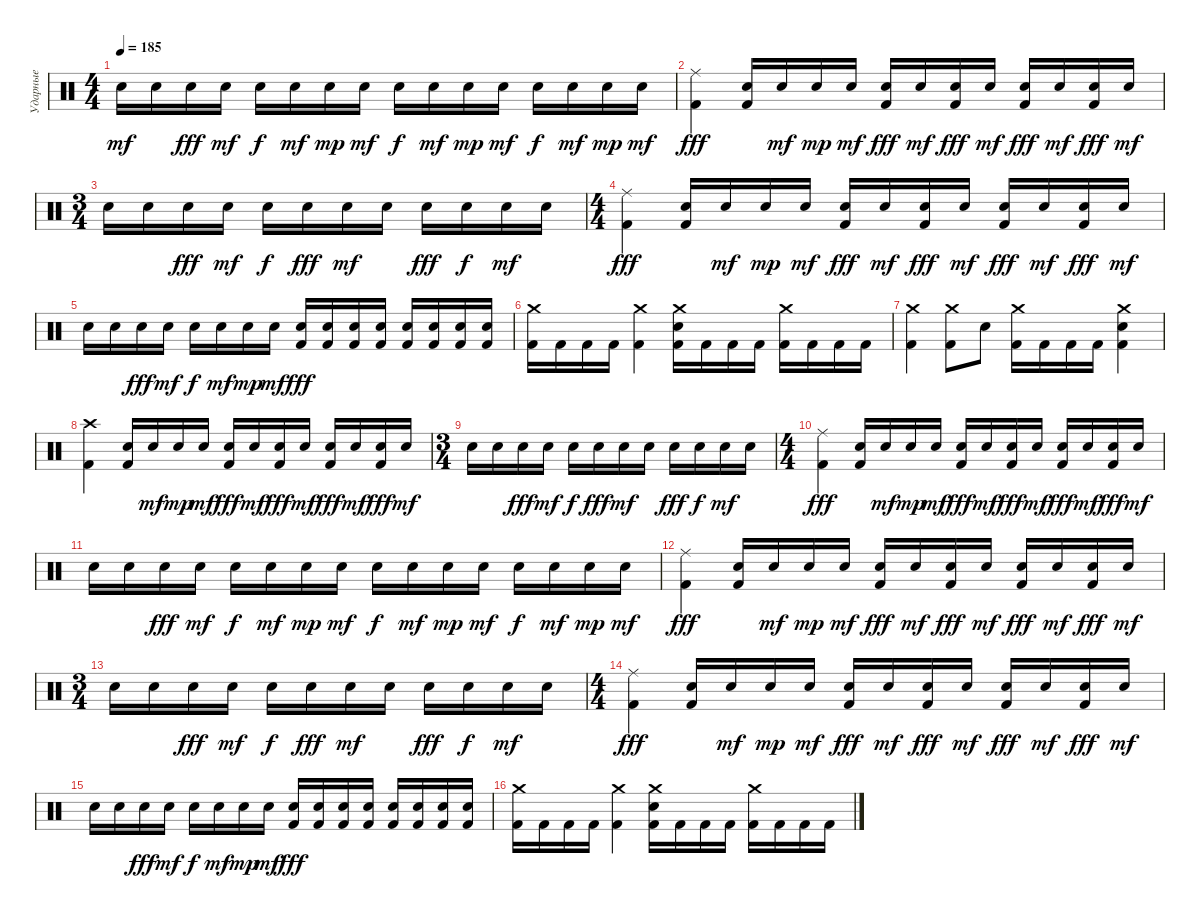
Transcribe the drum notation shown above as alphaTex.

\track ("Ударные" "Ударные") {instrument percussion}
\staff {score}
\articulation defaults
\ts (4 4)
\tempo 185
\clef neutral
\ks c "Electric Snare (hit)".16{dy mf} "Electric Snare (hit)".16 "Electric Snare (hit)".16{dy fff} "Electric Snare (hit)".16{dy mf} "Electric Snare (hit)".16{dy f} "Electric Snare (hit)".16{dy mf} "Electric Snare (hit)".16{dy mp} "Electric Snare (hit)".16{dy mf} "Electric Snare (hit)".16{dy f} "Electric Snare (hit)".16{dy mf} "Electric Snare (hit)".16{dy mp} "Electric Snare (hit)".16{dy mf} "Electric Snare (hit)".16{dy f} "Electric Snare (hit)".16{dy mf} "Electric Snare (hit)".16{dy mp} "Electric Snare (hit)".16{dy mf}
|
("Ride (middle)" "Kick (hit) 2").4{dy fff} ("Electric Snare (hit)" "Kick (hit) 2").16 "Electric Snare (hit)".16{dy mf} "Electric Snare (hit)".16{dy mp} "Electric Snare (hit)".16{dy mf} ("Electric Snare (hit)" "Kick (hit) 2").16{dy fff} "Electric Snare (hit)".16{dy mf} ("Electric Snare (hit)" "Kick (hit) 2").16{dy fff} "Electric Snare (hit)".16{dy mf} ("Electric Snare (hit)" "Kick (hit) 2").16{dy fff} "Electric Snare (hit)".16{dy mf} ("Electric Snare (hit)" "Kick (hit) 2").16{dy fff} "Electric Snare (hit)".16{dy mf} |
\ts (3 4)
"Electric Snare (hit)".16 "Electric Snare (hit)".16 "Electric Snare (hit)".16{dy fff} "Electric Snare (hit)".16{dy mf} "Electric Snare (hit)".16{dy f} "Electric Snare (hit)".16{dy fff} "Electric Snare (hit)".16{dy mf} "Electric Snare (hit)".16 "Electric Snare (hit)".16{dy fff} "Electric Snare (hit)".16{dy f} "Electric Snare (hit)".16{dy mf} "Electric Snare (hit)".16 |
\ts (4 4)
("Ride (middle)" "Kick (hit) 2").4{dy fff} ("Electric Snare (hit)" "Kick (hit) 2").16 "Electric Snare (hit)".16{dy mf} "Electric Snare (hit)".16{dy mp} "Electric Snare (hit)".16{dy mf} ("Electric Snare (hit)" "Kick (hit) 2").16{dy fff} "Electric Snare (hit)".16{dy mf} ("Electric Snare (hit)" "Kick (hit) 2").16{dy fff} "Electric Snare (hit)".16{dy mf} ("Electric Snare (hit)" "Kick (hit) 2").16{dy fff} "Electric Snare (hit)".16{dy mf} ("Electric Snare (hit)" "Kick (hit) 2").16{dy fff} "Electric Snare (hit)".16{dy mf} |
"Electric Snare (hit)".16 "Electric Snare (hit)".16 "Electric Snare (hit)".16{dy fff} "Electric Snare (hit)".16{dy mf} "Electric Snare (hit)".16{dy f} "Electric Snare (hit)".16{dy mf} "Electric Snare (hit)".16{dy mp} "Electric Snare (hit)".16{dy mf} ("Electric Snare (hit)" "Kick (hit) 2").16{dy fff} ("Electric Snare (hit)" "Kick (hit) 2").16 ("Electric Snare (hit)" "Kick (hit) 2").16 ("Electric Snare (hit)" "Kick (hit) 2").16 ("Electric Snare (hit)" "Kick (hit) 2").16 ("Electric Snare (hit)" "Kick (hit) 2").16 ("Electric Snare (hit)" "Kick (hit) 2").16 ("Electric Snare (hit)" "Kick (hit) 2").16 |
("Crash medium (hit)" "Kick (hit) 2").16 "Kick (hit) 2".16 "Kick (hit) 2".16 "Kick (hit) 2".16 ("Crash medium (hit)" "Kick (hit) 2").4 ("Crash medium (hit)" "Electric Snare (hit)" "Kick (hit) 2").16 "Kick (hit) 2".16 "Kick (hit) 2".16 "Kick (hit) 2".16 ("Crash medium (hit)" "Kick (hit) 2").16 "Kick (hit) 2".16 "Kick (hit) 2".16 "Kick (hit) 2".16 |
("Crash medium (hit)" "Kick (hit) 2").4 ("Crash medium (hit)" "Kick (hit) 2").8 "Electric Snare (hit)".8 ("Crash medium (hit)" "Kick (hit) 2").16 "Kick (hit) 2".16 "Kick (hit) 2".16 "Kick (hit) 2".16 ("Crash medium (hit)" "Electric Snare (hit)" "Kick (hit) 2").4 |
("Crash high (hit)" "Kick (hit) 2").4 ("Electric Snare (hit)" "Kick (hit) 2").16 "Electric Snare (hit)".16{dy mf} "Electric Snare (hit)".16{dy mp} "Electric Snare (hit)".16{dy mf} ("Electric Snare (hit)" "Kick (hit) 2").16{dy fff} "Electric Snare (hit)".16{dy mf} ("Electric Snare (hit)" "Kick (hit) 2").16{dy fff} "Electric Snare (hit)".16{dy mf} ("Electric Snare (hit)" "Kick (hit) 2").16{dy fff} "Electric Snare (hit)".16{dy mf} ("Electric Snare (hit)" "Kick (hit) 2").16{dy fff} "Electric Snare (hit)".16{dy mf} |
\ts (3 4)
"Electric Snare (hit)".16 "Electric Snare (hit)".16 "Electric Snare (hit)".16{dy fff} "Electric Snare (hit)".16{dy mf} "Electric Snare (hit)".16{dy f} "Electric Snare (hit)".16{dy fff} "Electric Snare (hit)".16{dy mf} "Electric Snare (hit)".16 "Electric Snare (hit)".16{dy fff} "Electric Snare (hit)".16{dy f} "Electric Snare (hit)".16{dy mf} "Electric Snare (hit)".16 |
\ts (4 4)
("Ride (middle)" "Kick (hit) 2").4{dy fff} ("Electric Snare (hit)" "Kick (hit) 2").16 "Electric Snare (hit)".16{dy mf} "Electric Snare (hit)".16{dy mp} "Electric Snare (hit)".16{dy mf} ("Electric Snare (hit)" "Kick (hit) 2").16{dy fff} "Electric Snare (hit)".16{dy mf} ("Electric Snare (hit)" "Kick (hit) 2").16{dy fff} "Electric Snare (hit)".16{dy mf} ("Electric Snare (hit)" "Kick (hit) 2").16{dy fff} "Electric Snare (hit)".16{dy mf} ("Electric Snare (hit)" "Kick (hit) 2").16{dy fff} "Electric Snare (hit)".16{dy mf} |
"Electric Snare (hit)".16 "Electric Snare (hit)".16 "Electric Snare (hit)".16{dy fff} "Electric Snare (hit)".16{dy mf} "Electric Snare (hit)".16{dy f} "Electric Snare (hit)".16{dy mf} "Electric Snare (hit)".16{dy mp} "Electric Snare (hit)".16{dy mf} "Electric Snare (hit)".16{dy f} "Electric Snare (hit)".16{dy mf} "Electric Snare (hit)".16{dy mp} "Electric Snare (hit)".16{dy mf} "Electric Snare (hit)".16{dy f} "Electric Snare (hit)".16{dy mf} "Electric Snare (hit)".16{dy mp} "Electric Snare (hit)".16{dy mf} |
("Ride (middle)" "Kick (hit) 2").4{dy fff} ("Electric Snare (hit)" "Kick (hit) 2").16 "Electric Snare (hit)".16{dy mf} "Electric Snare (hit)".16{dy mp} "Electric Snare (hit)".16{dy mf} ("Electric Snare (hit)" "Kick (hit) 2").16{dy fff} "Electric Snare (hit)".16{dy mf} ("Electric Snare (hit)" "Kick (hit) 2").16{dy fff} "Electric Snare (hit)".16{dy mf} ("Electric Snare (hit)" "Kick (hit) 2").16{dy fff} "Electric Snare (hit)".16{dy mf} ("Electric Snare (hit)" "Kick (hit) 2").16{dy fff} "Electric Snare (hit)".16{dy mf} |
\ts (3 4)
"Electric Snare (hit)".16 "Electric Snare (hit)".16 "Electric Snare (hit)".16{dy fff} "Electric Snare (hit)".16{dy mf} "Electric Snare (hit)".16{dy f} "Electric Snare (hit)".16{dy fff} "Electric Snare (hit)".16{dy mf} "Electric Snare (hit)".16 "Electric Snare (hit)".16{dy fff} "Electric Snare (hit)".16{dy f} "Electric Snare (hit)".16{dy mf} "Electric Snare (hit)".16 |
\ts (4 4)
("Ride (middle)" "Kick (hit) 2").4{dy fff} ("Electric Snare (hit)" "Kick (hit) 2").16 "Electric Snare (hit)".16{dy mf} "Electric Snare (hit)".16{dy mp} "Electric Snare (hit)".16{dy mf} ("Electric Snare (hit)" "Kick (hit) 2").16{dy fff} "Electric Snare (hit)".16{dy mf} ("Electric Snare (hit)" "Kick (hit) 2").16{dy fff} "Electric Snare (hit)".16{dy mf} ("Electric Snare (hit)" "Kick (hit) 2").16{dy fff} "Electric Snare (hit)".16{dy mf} ("Electric Snare (hit)" "Kick (hit) 2").16{dy fff} "Electric Snare (hit)".16{dy mf} |
"Electric Snare (hit)".16 "Electric Snare (hit)".16 "Electric Snare (hit)".16{dy fff} "Electric Snare (hit)".16{dy mf} "Electric Snare (hit)".16{dy f} "Electric Snare (hit)".16{dy mf} "Electric Snare (hit)".16{dy mp} "Electric Snare (hit)".16{dy mf} ("Electric Snare (hit)" "Kick (hit) 2").16{dy fff} ("Electric Snare (hit)" "Kick (hit) 2").16 ("Electric Snare (hit)" "Kick (hit) 2").16 ("Electric Snare (hit)" "Kick (hit) 2").16 ("Electric Snare (hit)" "Kick (hit) 2").16 ("Electric Snare (hit)" "Kick (hit) 2").16 ("Electric Snare (hit)" "Kick (hit) 2").16 ("Electric Snare (hit)" "Kick (hit) 2").16 |
("Crash medium (hit)" "Kick (hit) 2").16 "Kick (hit) 2".16 "Kick (hit) 2".16 "Kick (hit) 2".16 ("Crash medium (hit)" "Kick (hit) 2").4 ("Crash medium (hit)" "Electric Snare (hit)" "Kick (hit) 2").16 "Kick (hit) 2".16 "Kick (hit) 2".16 "Kick (hit) 2".16 ("Crash medium (hit)" "Kick (hit) 2").16 "Kick (hit) 2".16 "Kick (hit) 2".16 "Kick (hit) 2".16
